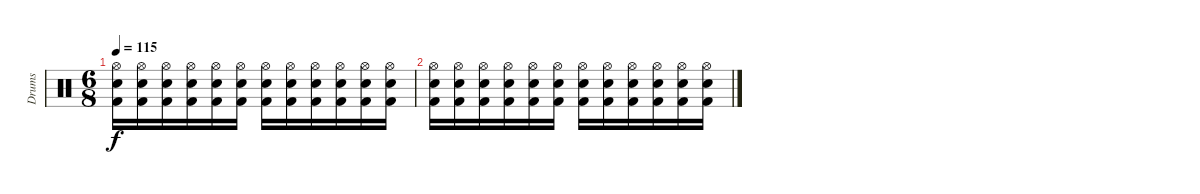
\track ("Drums" "Drums") {instrument percussion}
\staff {score}
\articulation defaults
\ts (6 8)
\tempo 130
\tempo 115
\clef neutral
\ks c
("Hi-Hat (open)" "Electric Snare (hit)" "Kick (hit) 2").16{dy f} ("Hi-Hat (open)" "Electric Snare (hit)" "Kick (hit) 2").16 ("Hi-Hat (open)" "Electric Snare (hit)" "Kick (hit) 2").16 ("Hi-Hat (open)" "Electric Snare (hit)" "Kick (hit) 2").16 ("Hi-Hat (open)" "Electric Snare (hit)" "Kick (hit) 2").16 ("Hi-Hat (open)" "Electric Snare (hit)" "Kick (hit) 2").16 ("Hi-Hat (open)" "Electric Snare (hit)" "Kick (hit) 2").16 ("Hi-Hat (open)" "Electric Snare (hit)" "Kick (hit) 2").16 ("Hi-Hat (open)" "Electric Snare (hit)" "Kick (hit) 2").16 ("Hi-Hat (open)" "Electric Snare (hit)" "Kick (hit) 2").16 ("Hi-Hat (open)" "Electric Snare (hit)" "Kick (hit) 2").16 ("Hi-Hat (open)" "Electric Snare (hit)" "Kick (hit) 2").16 |
("Hi-Hat (open)" "Electric Snare (hit)" "Kick (hit) 2").16 ("Hi-Hat (open)" "Electric Snare (hit)" "Kick (hit) 2").16 ("Hi-Hat (open)" "Electric Snare (hit)" "Kick (hit) 2").16 ("Hi-Hat (open)" "Electric Snare (hit)" "Kick (hit) 2").16 ("Hi-Hat (open)" "Electric Snare (hit)" "Kick (hit) 2").16 ("Hi-Hat (open)" "Electric Snare (hit)" "Kick (hit) 2").16 ("Hi-Hat (open)" "Electric Snare (hit)" "Kick (hit) 2").16 ("Hi-Hat (open)" "Electric Snare (hit)" "Kick (hit) 2").16 ("Hi-Hat (open)" "Electric Snare (hit)" "Kick (hit) 2").16 ("Hi-Hat (open)" "Electric Snare (hit)" "Kick (hit) 2").16 ("Hi-Hat (open)" "Electric Snare (hit)" "Kick (hit) 2").16 ("Hi-Hat (open)" "Electric Snare (hit)" "Kick (hit) 2").16
